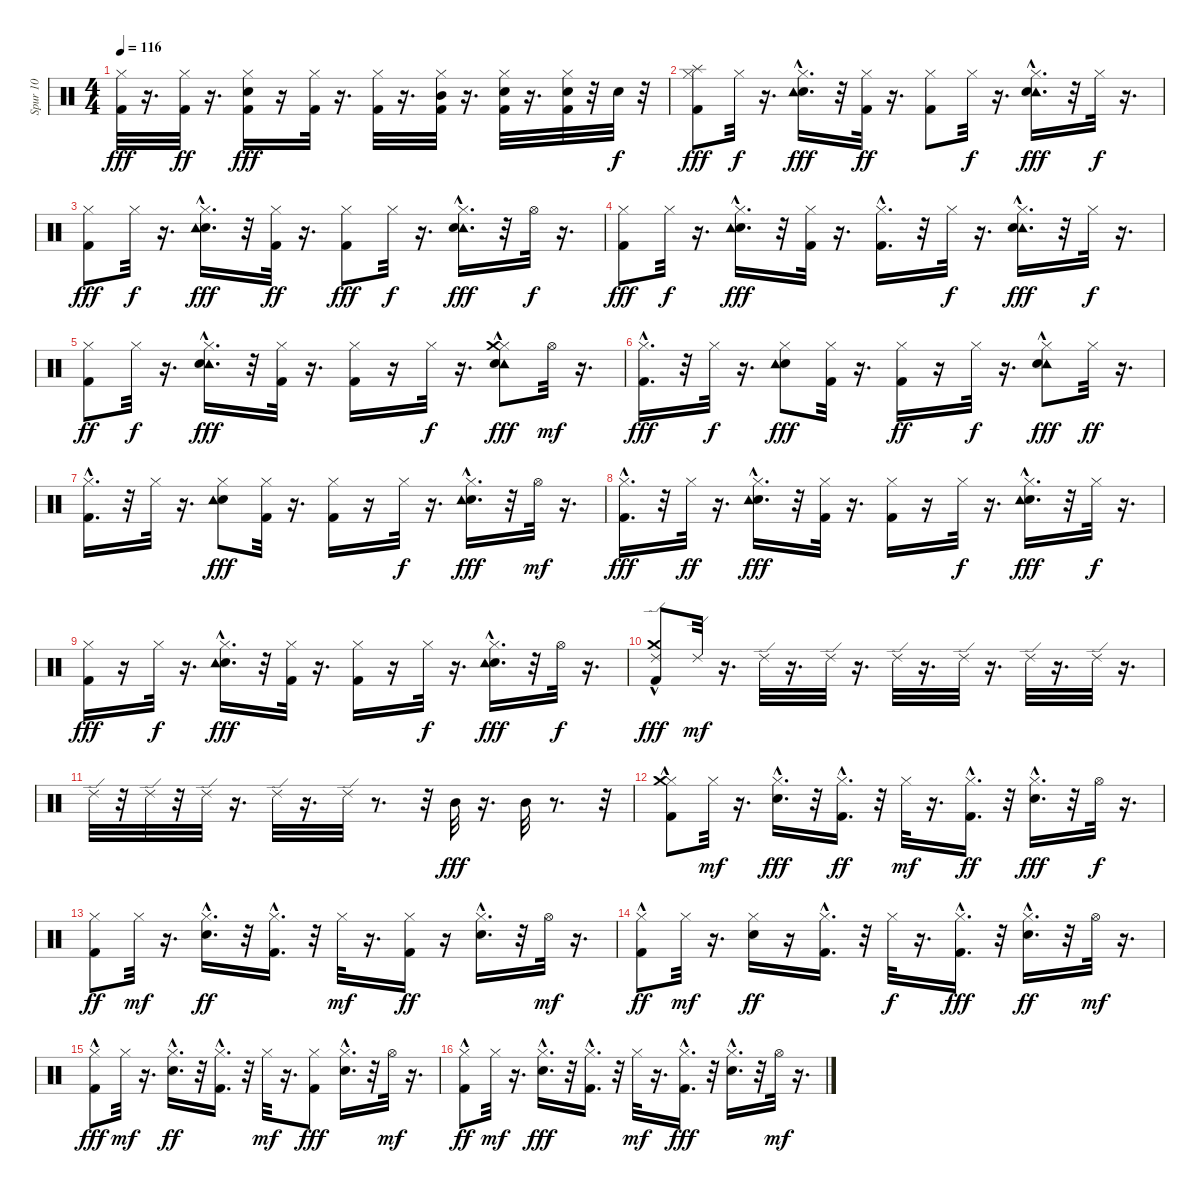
\track ("Spur 10" "Spur 10") {instrument percussion}
\staff {score}
\articulation defaults
\ts (4 4)
\tempo 116
\clef neutral
\ks c
("Hi-Hat (closed)" "Kick (hit) 2").32{dy fff} r.16{d} ("Hi-Hat (closed)" "Kick (hit) 2").32{dy ff} r.16{d} ("Hi-Hat (closed)" "Kick (hit) 2" "Snare (hit) 2").16{dy fff} r.16 ("Hi-Hat (closed)" "Kick (hit) 2").32 r.16{d} ("Hi-Hat (closed)" "Kick (hit) 2").32 r.16{d} ("Hi-Hat (closed)" "Kick (hit) 2" "Mid Tom (hit)").32 r.16{d} ("Hi-Hat (closed)" "Kick (hit) 2" "Snare (hit) 2").32 r.16{d} ("Hi-Hat (closed)" "Kick (hit) 2" "Snare (hit) 2").32 r.32 "Snare (hit) 2".32{dy f} r.32 |
("Kick (hit) 2" "Hi-Hat (closed)" "Splash (hit)").8{dy fff} "Hi-Hat (closed)".32{dy f} r.16{d} ("Hi-Hat (closed)" "Snare (hit) 2"{hac} "Tambourine (hit)").16{d dy fff} r.32 ("Kick (hit) 2" "Hi-Hat (closed)").32{dy ff} r.16{d} ("Kick (hit) 2" "Hi-Hat (closed)").8 "Hi-Hat (closed)".32{dy f} r.16{d} ("Hi-Hat (closed)" "Tambourine (hit)"{hac} "Snare (hit) 2"{hac}).16{d dy fff} r.32 "Hi-Hat (closed)".32{dy f} r.16{d} |
("Kick (hit) 2" "Hi-Hat (closed)").8{dy fff} "Hi-Hat (closed)".32{dy f} r.16{d} ("Hi-Hat (closed)" "Snare (hit) 2"{hac} "Tambourine (hit)"{hac}).16{d dy fff} r.32 ("Kick (hit) 2" "Hi-Hat (closed)").32{dy ff} r.16{d} ("Kick (hit) 2" "Hi-Hat (closed)").8{dy fff} "Hi-Hat (closed)".32{dy f} r.16{d} ("Hi-Hat (closed)" "Tambourine (hit)"{hac} "Snare (hit) 2"{hac}).16{d dy fff} r.32 "Hi-Hat (open)".32{dy f} r.16{d} |
("Kick (hit) 2" "Hi-Hat (closed)").8{dy fff} "Hi-Hat (closed)".32{dy f} r.16{d} ("Hi-Hat (closed)" "Snare (hit) 2"{hac} "Tambourine (hit)"{hac}).16{d dy fff} r.32 ("Kick (hit) 2" "Hi-Hat (closed)").32 r.16{d} ("Kick (hit) 2"{hac} "Hi-Hat (closed)").16{d} r.32 "Hi-Hat (closed)".32{dy f} r.16{d} ("Hi-Hat (closed)" "Tambourine (hit)"{hac} "Snare (hit) 2"{hac}).16{d dy fff} r.32 "Hi-Hat (closed)".32{dy f} r.16{d} |
("Kick (hit) 2" "Hi-Hat (closed)").8{dy ff} "Hi-Hat (closed)".32{dy f} r.16{d} ("Hi-Hat (closed)" "Tambourine (hit)"{hac} "Snare (hit) 2"{hac}).16{d dy fff} r.32 ("Kick (hit) 2" "Hi-Hat (closed)").32 r.16{d} ("Kick (hit) 2" "Hi-Hat (closed)").16 r.16 "Hi-Hat (closed)".32{dy f} r.16{d} ("Hi-Hat (closed)" "Tambourine (hit)"{hac} "Snare (hit) 2"{hac} "Crash medium (hit)").8{dy fff} "Hi-Hat (open)".32{dy mf} r.16{d} |
("Kick (hit) 2"{hac} "Hi-Hat (closed)").16{d dy fff} r.32 "Hi-Hat (closed)".32{dy f} r.16{d} ("Hi-Hat (closed)" "Snare (hit) 2" "Tambourine (hit)").8{dy fff} ("Kick (hit) 2" "Hi-Hat (closed)").32 r.16{d} ("Kick (hit) 2" "Hi-Hat (closed)").16{dy ff} r.16 "Hi-Hat (closed)".32{dy f} r.16{d} ("Hi-Hat (closed)" "Tambourine (hit)" "Snare (hit) 2"{hac}).8{dy fff} "Hi-Hat (closed)".32{dy ff} r.16{d} |
("Kick (hit) 2"{hac} "Hi-Hat (closed)").16{d} r.32 "Hi-Hat (closed)".32 r.16{d} ("Hi-Hat (closed)" "Snare (hit) 2" "Tambourine (hit)").8{dy fff} ("Kick (hit) 2" "Hi-Hat (closed)").32 r.16{d} ("Kick (hit) 2" "Hi-Hat (closed)").16 r.16 "Hi-Hat (closed)".32{dy f} r.16{d} ("Hi-Hat (closed)" "Snare (hit) 2"{hac} "Tambourine (hit)"{hac}).16{d dy fff} r.32 "Hi-Hat (open)".32{dy mf} r.16{d} |
("Kick (hit) 2"{hac} "Hi-Hat (closed)").16{d dy fff} r.32 "Hi-Hat (closed)".32{dy ff} r.16{d} ("Hi-Hat (closed)" "Snare (hit) 2"{hac} "Tambourine (hit)"{hac}).16{d dy fff} r.32 ("Kick (hit) 2" "Hi-Hat (closed)").32 r.16{d} ("Kick (hit) 2" "Hi-Hat (closed)").16 r.16 "Hi-Hat (closed)".32{dy f} r.16{d} ("Hi-Hat (closed)" "Snare (hit) 2"{hac} "Tambourine (hit)"{hac}).16{d dy fff} r.32 "Hi-Hat (closed)".32{dy f} r.16{d} |
("Kick (hit) 2" "Hi-Hat (closed)").16{dy fff} r.16 "Hi-Hat (closed)".32{dy f} r.16{d} ("Hi-Hat (closed)" "Snare (hit) 2"{hac} "Tambourine (hit)"{hac}).16{d dy fff} r.32 ("Kick (hit) 2" "Hi-Hat (closed)").32 r.16{d} ("Kick (hit) 2" "Hi-Hat (closed)").16 r.16 "Hi-Hat (closed)".32{dy f} r.16{d} ("Hi-Hat (closed)" "Snare (hit) 2"{hac} "Tambourine (hit)"{hac}).16{d dy fff} r.32 "Hi-Hat (open)".32{dy f} r.16{d} |
("Kick (hit) 2" "Ride (edge) 2" "Crash medium (hit)"{hac}).8{dy fff} "Ride (edge) 2".32{dy mf} r.16{d} "Ride (edge) 2".32 r.16{d} "Ride (edge) 2".32 r.16{d} "Ride (edge) 2".32 r.16{d} "Ride (edge) 2".32 r.16{d} "Ride (edge) 2".32 r.16{d} "Ride (edge) 2".32 r.16{d} |
"Ride (edge) 2".32 r.32 "Ride (edge) 2".32 r.32 "Ride (edge) 2".32 r.16{d} "Ride (edge) 2".32 r.16{d} "Ride (edge) 2".32 r.8{d} r.32 "Mid Tom (hit)".32{dy fff} r.16{d} "Mid Tom (hit)".32 r.8{d} r.32 |
("Hi-Hat (closed)" "Kick (hit) 2"{hac} "Crash medium (hit)").8 "Hi-Hat (closed)".32{dy mf} r.16{d} ("Hi-Hat (closed)" "Snare (hit) 2"{hac}).16{d dy fff} r.32 ("Hi-Hat (closed)" "Kick (hit) 2"{hac}).16{d dy ff} r.32 "Hi-Hat (closed)".32{dy mf} r.16{d} ("Hi-Hat (closed)" "Kick (hit) 2"{hac}).16{d dy ff} r.32 ("Hi-Hat (closed)" "Snare (hit) 2"{hac}).16{d dy fff} r.32 "Hi-Hat (open)".32{dy f} r.16{d} |
("Hi-Hat (closed)" "Kick (hit) 2").8{dy ff} "Hi-Hat (closed)".32{dy mf} r.16{d} ("Hi-Hat (closed)" "Snare (hit) 2"{hac}).16{d dy ff} r.32 ("Hi-Hat (closed)" "Kick (hit) 2"{hac}).16{d} r.32 "Hi-Hat (closed)".32{dy mf} r.16{d} ("Hi-Hat (closed)" "Kick (hit) 2").16{dy ff} r.16 ("Hi-Hat (closed)" "Snare (hit) 2"{hac}).16{d} r.32 "Hi-Hat (open)".32{dy mf} r.16{d} |
("Hi-Hat (closed)" "Kick (hit) 2"{hac}).8{dy ff} "Hi-Hat (closed)".32{dy mf} r.16{d} ("Hi-Hat (closed)" "Snare (hit) 2").16{dy ff} r.16 ("Hi-Hat (closed)" "Kick (hit) 2"{hac}).16{d} r.32 "Hi-Hat (closed)".32{dy f} r.16{d} ("Hi-Hat (closed)" "Kick (hit) 2"{hac}).16{d dy fff} r.32 ("Hi-Hat (closed)" "Snare (hit) 2"{hac}).16{d dy ff} r.32 "Hi-Hat (open)".32{dy mf} r.16{d} |
("Hi-Hat (closed)" "Kick (hit) 2"{hac}).8{dy fff} "Hi-Hat (closed)".32{dy mf} r.16{d} ("Hi-Hat (closed)" "Snare (hit) 2"{hac}).16{d dy ff} r.32 ("Hi-Hat (closed)" "Kick (hit) 2"{hac}).16{d} r.32 "Hi-Hat (closed)".32{dy mf} r.16{d} ("Hi-Hat (closed)" "Kick (hit) 2").8{dy fff} ("Hi-Hat (closed)" "Snare (hit) 2"{hac}).16{d} r.32 "Hi-Hat (open)".32{dy mf} r.16{d} |
("Hi-Hat (closed)" "Kick (hit) 2"{hac}).8{dy ff} "Hi-Hat (closed)".32{dy mf} r.16{d} ("Hi-Hat (closed)" "Snare (hit) 2"{hac}).16{d dy fff} r.32 ("Hi-Hat (closed)" "Kick (hit) 2"{hac}).16{d} r.32 "Hi-Hat (closed)".32{dy mf} r.16{d} ("Hi-Hat (closed)" "Kick (hit) 2"{hac}).16{d dy fff} r.32 ("Hi-Hat (closed)" "Snare (hit) 2"{hac}).16{d} r.32 "Hi-Hat (open)".32{dy mf} r.16{d}
